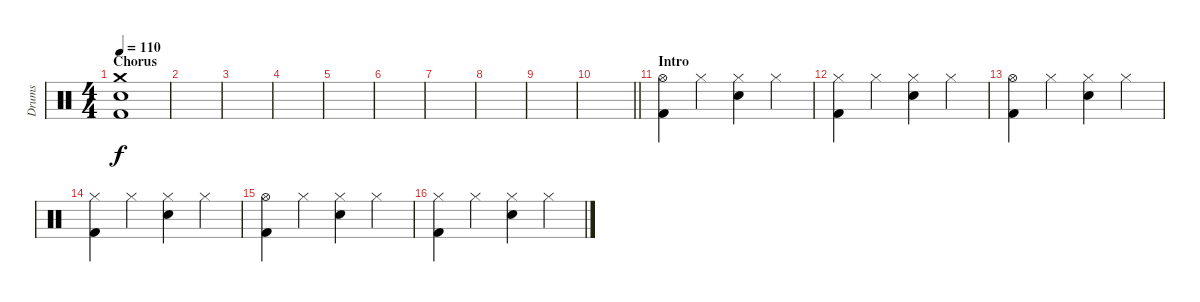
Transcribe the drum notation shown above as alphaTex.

\track ("Drums" "Drums") {instrument percussion}
\staff {score}
\articulation defaults
\ts (4 4)
\section ("" "Chorus")
\tempo 110
\clef neutral
\ks c
("Kick (hit) 2" "Electric Snare (hit)" "Crash medium (hit)").1{dy f} |
|
|
|
|
|
|
|
|
\barLineRight lightlight
|
\section ("" "Intro")
("Kick (hit) 2" "Hi-Hat (open)").4 "Hi-Hat (closed)".4 ("Electric Snare (hit)" "Hi-Hat (closed)").4 "Hi-Hat (closed)".4 |
("Kick (hit) 2" "Hi-Hat (closed)").4 "Hi-Hat (closed)".4 ("Electric Snare (hit)" "Hi-Hat (closed)").4 "Hi-Hat (closed)".4 |
("Kick (hit) 2" "Hi-Hat (open)").4 "Hi-Hat (closed)".4 ("Electric Snare (hit)" "Hi-Hat (closed)").4 "Hi-Hat (closed)".4 |
("Kick (hit) 2" "Hi-Hat (closed)").4 "Hi-Hat (closed)".4 ("Electric Snare (hit)" "Hi-Hat (closed)").4 "Hi-Hat (closed)".4 |
("Kick (hit) 2" "Hi-Hat (open)").4 "Hi-Hat (closed)".4 ("Electric Snare (hit)" "Hi-Hat (closed)").4 "Hi-Hat (closed)".4 |
("Kick (hit) 2" "Hi-Hat (closed)").4 "Hi-Hat (closed)".4 ("Electric Snare (hit)" "Hi-Hat (closed)").4 "Hi-Hat (closed)".4
